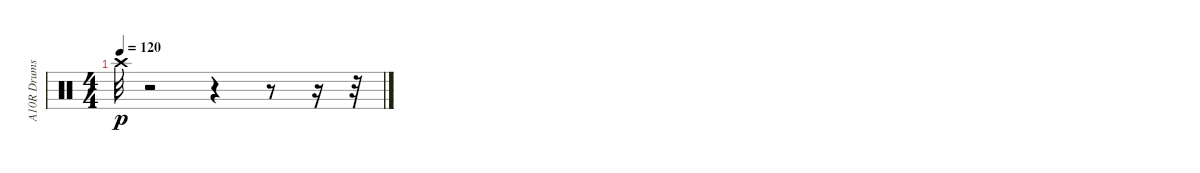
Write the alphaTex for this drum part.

\track ("A10R Drums" "A10R Drums") {instrument percussion}
\staff {score}
\articulation defaults
\ts (4 4)
\tempo 120
\clef neutral
\ks c "Crash high (hit)".32{dy p}
r.2 r.4 r.8 r.16 r.32
